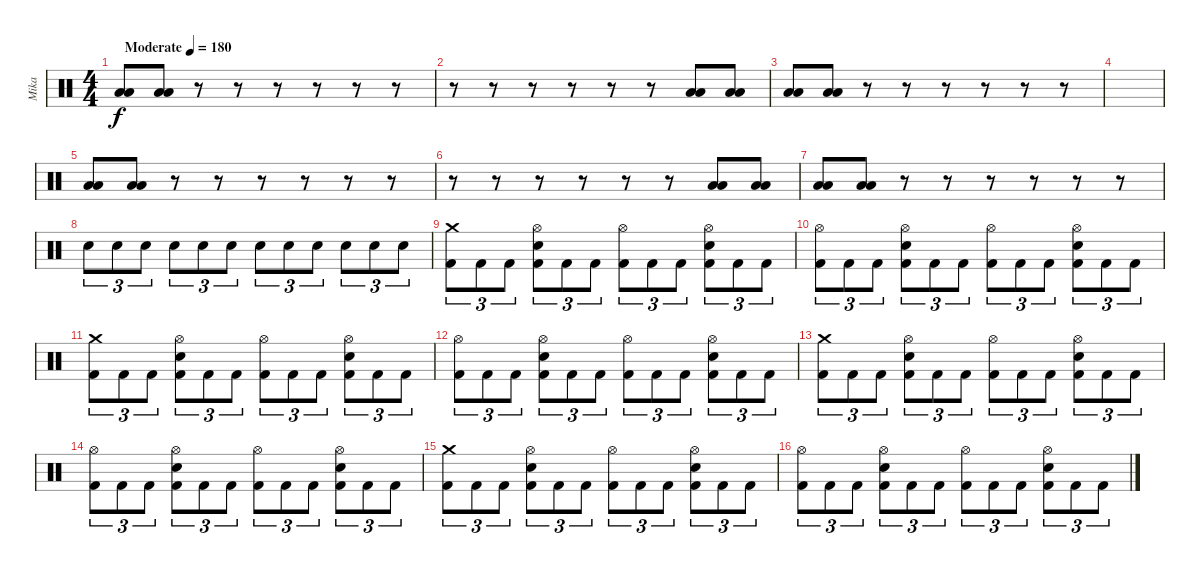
\track ("Mika" "Mika") {instrument percussion}
\staff {score}
\articulation defaults
\ts (4 4)
\tempo (180 "Moderate")
\clef neutral
\ks c
("Low Tom (hit)" "Low Floor Tom (hit)").8{dy f} ("Low Floor Tom (hit)" "Low Tom (hit)").8 r.8 r.8 r.8 r.8 r.8 r.8 |
r.8 r.8 r.8 r.8 r.8 r.8 ("Low Tom (hit)" "Low Floor Tom (hit)").8 ("Low Floor Tom (hit)" "Low Tom (hit)").8 |
("Low Tom (hit)" "Low Floor Tom (hit)").8 ("Low Floor Tom (hit)" "Low Tom (hit)").8 r.8 r.8 r.8 r.8 r.8 r.8 |
|
("Low Tom (hit)" "Low Floor Tom (hit)").8 ("Low Floor Tom (hit)" "Low Tom (hit)").8 r.8 r.8 r.8 r.8 r.8 r.8 |
r.8 r.8 r.8 r.8 r.8 r.8 ("Low Tom (hit)" "Low Floor Tom (hit)").8 ("Low Floor Tom (hit)" "Low Tom (hit)").8 |
("Low Tom (hit)" "Low Floor Tom (hit)").8 ("Low Floor Tom (hit)" "Low Tom (hit)").8 r.8 r.8 r.8 r.8 r.8 r.8 |
"Electric Snare (hit)".8{tu (3 2)} "Electric Snare (hit)".8{tu (3 2)} "Electric Snare (hit)".8{tu (3 2)} "Electric Snare (hit)".8{tu (3 2)} "Electric Snare (hit)".8{tu (3 2)} "Electric Snare (hit)".8{tu (3 2)} "Electric Snare (hit)".8{tu (3 2)} "Electric Snare (hit)".8{tu (3 2)} "Electric Snare (hit)".8{tu (3 2)} "Electric Snare (hit)".8{tu (3 2)} "Electric Snare (hit)".8{tu (3 2)} "Electric Snare (hit)".8{tu (3 2)} |
("Crash medium (hit)" "Kick (hit) 2").8{tu (3 2)} "Kick (hit) 2".8{tu (3 2)} "Kick (hit) 2".8{tu (3 2)} ("Hi-Hat (open)" "Electric Snare (hit)" "Kick (hit) 2").8{tu (3 2)} "Kick (hit) 2".8{tu (3 2)} "Kick (hit) 2".8{tu (3 2)} ("Hi-Hat (open)" "Kick (hit) 2").8{tu (3 2)} "Kick (hit) 2".8{tu (3 2)} "Kick (hit) 2".8{tu (3 2)} ("Hi-Hat (open)" "Electric Snare (hit)" "Kick (hit) 2").8{tu (3 2)} "Kick (hit) 2".8{tu (3 2)} "Kick (hit) 2".8{tu (3 2)} |
("Hi-Hat (open)" "Kick (hit) 2").8{tu (3 2)} "Kick (hit) 2".8{tu (3 2)} "Kick (hit) 2".8{tu (3 2)} ("Hi-Hat (open)" "Electric Snare (hit)" "Kick (hit) 2").8{tu (3 2)} "Kick (hit) 2".8{tu (3 2)} "Kick (hit) 2".8{tu (3 2)} ("Hi-Hat (open)" "Kick (hit) 2").8{tu (3 2)} "Kick (hit) 2".8{tu (3 2)} "Kick (hit) 2".8{tu (3 2)} ("Hi-Hat (open)" "Electric Snare (hit)" "Kick (hit) 2").8{tu (3 2)} "Kick (hit) 2".8{tu (3 2)} "Kick (hit) 2".8{tu (3 2)} |
("Crash medium (hit)" "Kick (hit) 2").8{tu (3 2)} "Kick (hit) 2".8{tu (3 2)} "Kick (hit) 2".8{tu (3 2)} ("Hi-Hat (open)" "Electric Snare (hit)" "Kick (hit) 2").8{tu (3 2)} "Kick (hit) 2".8{tu (3 2)} "Kick (hit) 2".8{tu (3 2)} ("Hi-Hat (open)" "Kick (hit) 2").8{tu (3 2)} "Kick (hit) 2".8{tu (3 2)} "Kick (hit) 2".8{tu (3 2)} ("Hi-Hat (open)" "Electric Snare (hit)" "Kick (hit) 2").8{tu (3 2)} "Kick (hit) 2".8{tu (3 2)} "Kick (hit) 2".8{tu (3 2)} |
("Hi-Hat (open)" "Kick (hit) 2").8{tu (3 2)} "Kick (hit) 2".8{tu (3 2)} "Kick (hit) 2".8{tu (3 2)} ("Hi-Hat (open)" "Electric Snare (hit)" "Kick (hit) 2").8{tu (3 2)} "Kick (hit) 2".8{tu (3 2)} "Kick (hit) 2".8{tu (3 2)} ("Hi-Hat (open)" "Kick (hit) 2").8{tu (3 2)} "Kick (hit) 2".8{tu (3 2)} "Kick (hit) 2".8{tu (3 2)} ("Hi-Hat (open)" "Electric Snare (hit)" "Kick (hit) 2").8{tu (3 2)} "Kick (hit) 2".8{tu (3 2)} "Kick (hit) 2".8{tu (3 2)} |
("Crash medium (hit)" "Kick (hit) 2").8{tu (3 2)} "Kick (hit) 2".8{tu (3 2)} "Kick (hit) 2".8{tu (3 2)} ("Hi-Hat (open)" "Electric Snare (hit)" "Kick (hit) 2").8{tu (3 2)} "Kick (hit) 2".8{tu (3 2)} "Kick (hit) 2".8{tu (3 2)} ("Hi-Hat (open)" "Kick (hit) 2").8{tu (3 2)} "Kick (hit) 2".8{tu (3 2)} "Kick (hit) 2".8{tu (3 2)} ("Hi-Hat (open)" "Electric Snare (hit)" "Kick (hit) 2").8{tu (3 2)} "Kick (hit) 2".8{tu (3 2)} "Kick (hit) 2".8{tu (3 2)} |
("Hi-Hat (open)" "Kick (hit) 2").8{tu (3 2)} "Kick (hit) 2".8{tu (3 2)} "Kick (hit) 2".8{tu (3 2)} ("Hi-Hat (open)" "Electric Snare (hit)" "Kick (hit) 2").8{tu (3 2)} "Kick (hit) 2".8{tu (3 2)} "Kick (hit) 2".8{tu (3 2)} ("Hi-Hat (open)" "Kick (hit) 2").8{tu (3 2)} "Kick (hit) 2".8{tu (3 2)} "Kick (hit) 2".8{tu (3 2)} ("Hi-Hat (open)" "Electric Snare (hit)" "Kick (hit) 2").8{tu (3 2)} "Kick (hit) 2".8{tu (3 2)} "Kick (hit) 2".8{tu (3 2)} |
("Crash medium (hit)" "Kick (hit) 2").8{tu (3 2)} "Kick (hit) 2".8{tu (3 2)} "Kick (hit) 2".8{tu (3 2)} ("Hi-Hat (open)" "Electric Snare (hit)" "Kick (hit) 2").8{tu (3 2)} "Kick (hit) 2".8{tu (3 2)} "Kick (hit) 2".8{tu (3 2)} ("Hi-Hat (open)" "Kick (hit) 2").8{tu (3 2)} "Kick (hit) 2".8{tu (3 2)} "Kick (hit) 2".8{tu (3 2)} ("Hi-Hat (open)" "Electric Snare (hit)" "Kick (hit) 2").8{tu (3 2)} "Kick (hit) 2".8{tu (3 2)} "Kick (hit) 2".8{tu (3 2)} |
("Hi-Hat (open)" "Kick (hit) 2").8{tu (3 2)} "Kick (hit) 2".8{tu (3 2)} "Kick (hit) 2".8{tu (3 2)} ("Hi-Hat (open)" "Electric Snare (hit)" "Kick (hit) 2").8{tu (3 2)} "Kick (hit) 2".8{tu (3 2)} "Kick (hit) 2".8{tu (3 2)} ("Hi-Hat (open)" "Kick (hit) 2").8{tu (3 2)} "Kick (hit) 2".8{tu (3 2)} "Kick (hit) 2".8{tu (3 2)} ("Hi-Hat (open)" "Electric Snare (hit)" "Kick (hit) 2").8{tu (3 2)} "Kick (hit) 2".8{tu (3 2)} "Kick (hit) 2".8{tu (3 2)}
